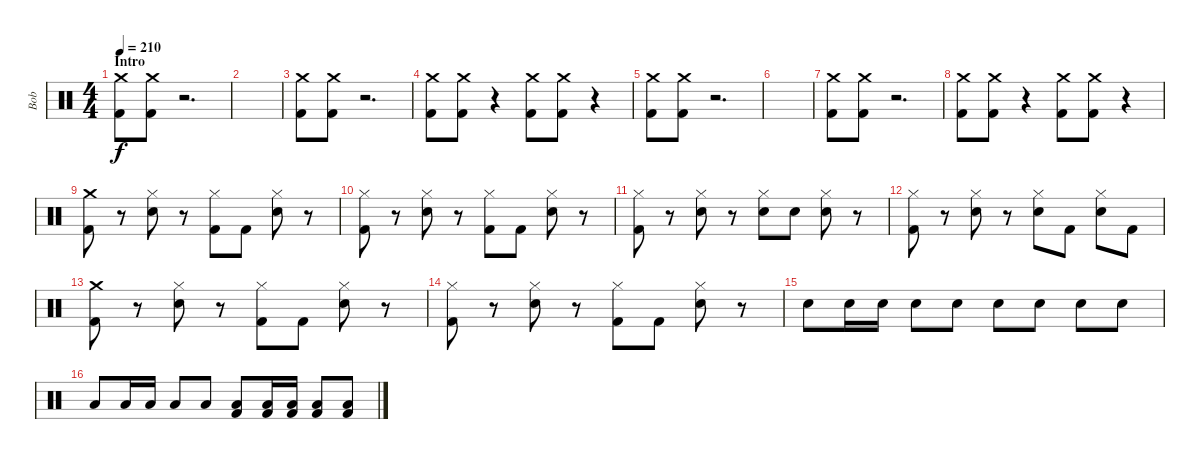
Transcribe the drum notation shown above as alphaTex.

\track ("Bob" "Bob") {instrument percussion}
\staff {score}
\articulation defaults
\ts (4 4)
\section ("" "Intro")
\tempo 210
\clef neutral
\ks c
("Crash medium (hit)" "Kick (hit) 2").8{dy f} ("Crash medium (hit)" "Kick (hit) 2").8 r.2{d} |
|
("Crash medium (hit)" "Kick (hit) 2").8 ("Crash medium (hit)" "Kick (hit) 2").8 r.2{d} |
("Crash medium (hit)" "Kick (hit) 2").8 ("Crash medium (hit)" "Kick (hit) 2").8 r.4 ("Crash medium (hit)" "Kick (hit) 2").8 ("Crash medium (hit)" "Kick (hit) 2").8 r.4 |
("Crash medium (hit)" "Kick (hit) 2").8 ("Crash medium (hit)" "Kick (hit) 2").8 r.2{d} |
|
("Crash medium (hit)" "Kick (hit) 2").8 ("Crash medium (hit)" "Kick (hit) 2").8 r.2{d} |
("Crash medium (hit)" "Kick (hit) 2").8 ("Crash medium (hit)" "Kick (hit) 2").8 r.4 ("Crash medium (hit)" "Kick (hit) 2").8 ("Crash medium (hit)" "Kick (hit) 2").8 r.4 |
("Crash medium (hit)" "Kick (hit) 2").8 r.8 ("Hi-Hat (closed)" "Electric Snare (hit)").8 r.8 ("Hi-Hat (closed)" "Kick (hit) 2").8 "Kick (hit) 2".8 ("Hi-Hat (closed)" "Electric Snare (hit)").8 r.8 |
("Hi-Hat (closed)" "Kick (hit) 2").8 r.8 ("Hi-Hat (closed)" "Electric Snare (hit)").8 r.8 ("Hi-Hat (closed)" "Kick (hit) 2").8 "Kick (hit) 2".8 ("Hi-Hat (closed)" "Electric Snare (hit)").8 r.8 |
("Hi-Hat (closed)" "Kick (hit) 2").8 r.8 ("Hi-Hat (closed)" "Electric Snare (hit)").8 r.8 ("Hi-Hat (closed)" "Electric Snare (hit)").8 "Electric Snare (hit)".8 ("Hi-Hat (closed)" "Electric Snare (hit)").8 r.8 |
("Hi-Hat (closed)" "Kick (hit) 2").8 r.8 ("Hi-Hat (closed)" "Electric Snare (hit)").8 r.8 ("Hi-Hat (closed)" "Electric Snare (hit)").8 "Kick (hit) 2".8 ("Hi-Hat (closed)" "Electric Snare (hit)").8 "Kick (hit) 2".8 |
("Crash medium (hit)" "Kick (hit) 2").8 r.8 ("Hi-Hat (closed)" "Electric Snare (hit)").8 r.8 ("Hi-Hat (closed)" "Kick (hit) 2").8 "Kick (hit) 2".8 ("Hi-Hat (closed)" "Electric Snare (hit)").8 r.8 |
("Hi-Hat (closed)" "Kick (hit) 2").8 r.8 ("Hi-Hat (closed)" "Electric Snare (hit)").8 r.8 ("Hi-Hat (closed)" "Kick (hit) 2").8 "Kick (hit) 2".8 ("Hi-Hat (closed)" "Electric Snare (hit)").8 r.8 |
"Electric Snare (hit)".8 "Electric Snare (hit)".16 "Electric Snare (hit)".16 "Electric Snare (hit)".8 "Electric Snare (hit)".8 "Electric Snare (hit)".8 "Electric Snare (hit)".8 "Electric Snare (hit)".8 "Electric Snare (hit)".8 |
"Low Tom (hit)".8 "Low Tom (hit)".16 "Low Tom (hit)".16 "Low Tom (hit)".8 "Low Tom (hit)".8 ("Low Floor Tom (hit)" "Kick (hit) 2").8 ("Low Floor Tom (hit)" "Kick (hit) 2").16 ("Low Floor Tom (hit)" "Kick (hit) 2").16 ("Low Floor Tom (hit)" "Kick (hit) 2").8 ("Low Floor Tom (hit)" "Kick (hit) 2").8
